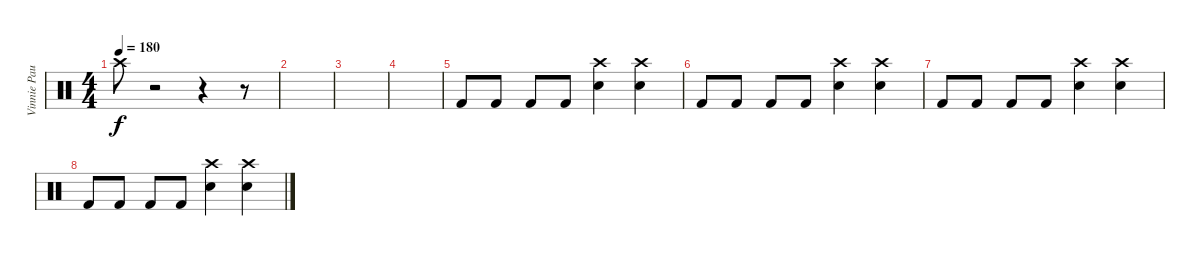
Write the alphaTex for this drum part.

\track ("Vinnie Paul" "Vinnie Pau") {instrument percussion}
\staff {score}
\articulation defaults
\ts (4 4)
\tempo 180
\clef neutral
\ks c "Crash high (hit)".8{dy f}
r.2 r.4 r.8 |
|
|
|
"Kick (hit) 2".8 "Kick (hit) 2".8 "Kick (hit) 2".8 "Kick (hit) 2".8 ("Crash high (hit)" "Snare (hit) 2").4 ("Crash high (hit)" "Snare (hit) 2").4 |
"Kick (hit) 2".8 "Kick (hit) 2".8 "Kick (hit) 2".8 "Kick (hit) 2".8 ("Crash high (hit)" "Snare (hit) 2").4 ("Crash high (hit)" "Snare (hit) 2").4 |
"Kick (hit) 2".8 "Kick (hit) 2".8 "Kick (hit) 2".8 "Kick (hit) 2".8 ("Crash high (hit)" "Snare (hit) 2").4 ("Crash high (hit)" "Snare (hit) 2").4 |
"Kick (hit) 2".8 "Kick (hit) 2".8 "Kick (hit) 2".8 "Kick (hit) 2".8 ("Crash high (hit)" "Snare (hit) 2").4 ("Crash high (hit)" "Snare (hit) 2").4
